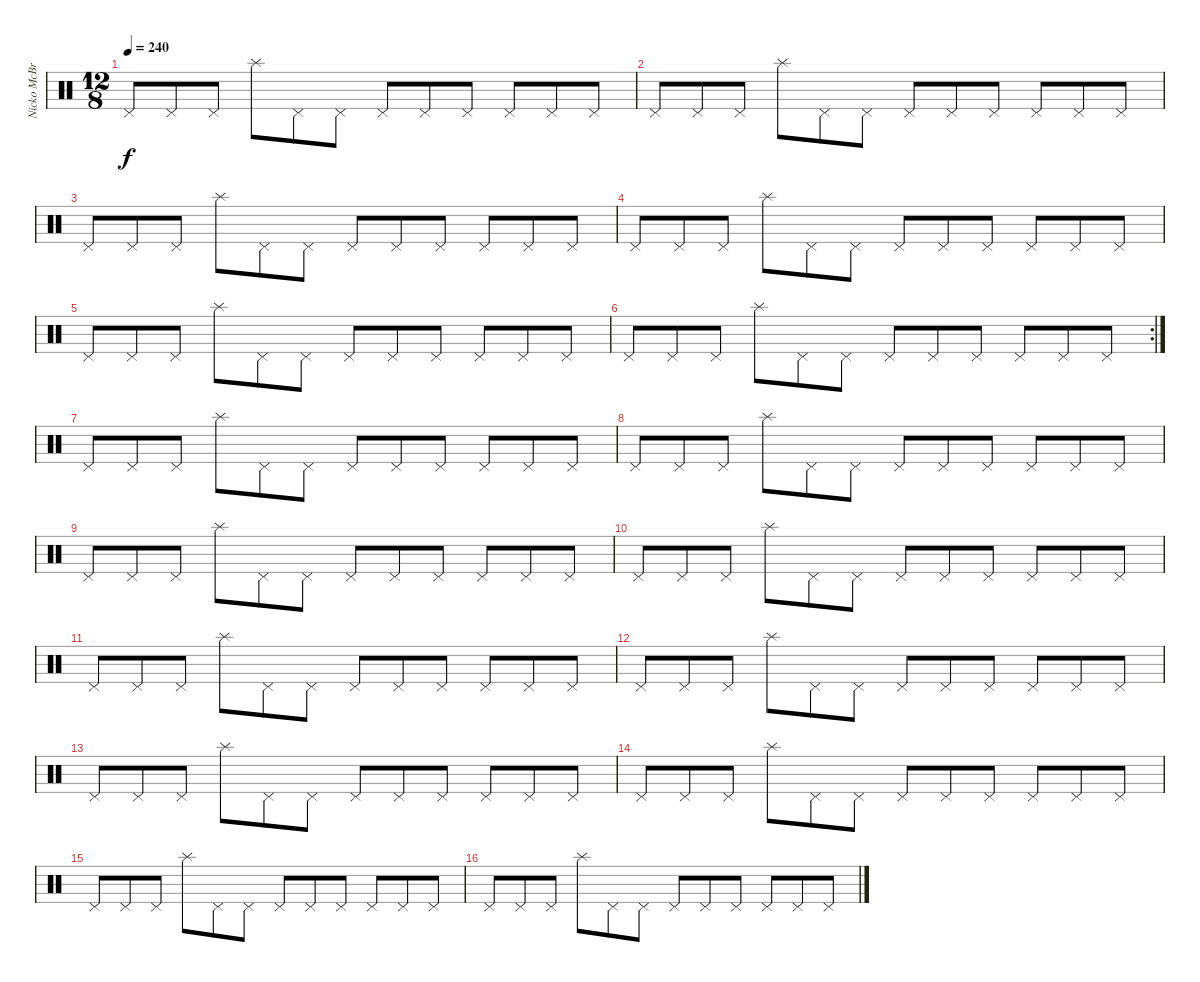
\track ("Nicko McBrian (Drums)" "Nicko McBr") {instrument percussion}
\staff {score}
\articulation defaults
\ts (12 8)
\tempo 240
\clef neutral
\ks c "Pedal Hi-Hat (hit)".8{dy f} "Pedal Hi-Hat (hit)".8 "Pedal Hi-Hat (hit)".8 "Splash (hit)".8 "Pedal Hi-Hat (hit)".8 "Pedal Hi-Hat (hit)".8 "Pedal Hi-Hat (hit)".8 "Pedal Hi-Hat (hit)".8 "Pedal Hi-Hat (hit)".8 "Pedal Hi-Hat (hit)".8 "Pedal Hi-Hat (hit)".8 "Pedal Hi-Hat (hit)".8
|
"Pedal Hi-Hat (hit)".8 "Pedal Hi-Hat (hit)".8 "Pedal Hi-Hat (hit)".8 "Splash (hit)".8 "Pedal Hi-Hat (hit)".8 "Pedal Hi-Hat (hit)".8 "Pedal Hi-Hat (hit)".8 "Pedal Hi-Hat (hit)".8 "Pedal Hi-Hat (hit)".8 "Pedal Hi-Hat (hit)".8 "Pedal Hi-Hat (hit)".8 "Pedal Hi-Hat (hit)".8 |
"Pedal Hi-Hat (hit)".8 "Pedal Hi-Hat (hit)".8 "Pedal Hi-Hat (hit)".8 "Splash (hit)".8 "Pedal Hi-Hat (hit)".8 "Pedal Hi-Hat (hit)".8 "Pedal Hi-Hat (hit)".8 "Pedal Hi-Hat (hit)".8 "Pedal Hi-Hat (hit)".8 "Pedal Hi-Hat (hit)".8 "Pedal Hi-Hat (hit)".8 "Pedal Hi-Hat (hit)".8 |
"Pedal Hi-Hat (hit)".8 "Pedal Hi-Hat (hit)".8 "Pedal Hi-Hat (hit)".8 "Splash (hit)".8 "Pedal Hi-Hat (hit)".8 "Pedal Hi-Hat (hit)".8 "Pedal Hi-Hat (hit)".8 "Pedal Hi-Hat (hit)".8 "Pedal Hi-Hat (hit)".8 "Pedal Hi-Hat (hit)".8 "Pedal Hi-Hat (hit)".8 "Pedal Hi-Hat (hit)".8 |
"Pedal Hi-Hat (hit)".8 "Pedal Hi-Hat (hit)".8 "Pedal Hi-Hat (hit)".8 "Splash (hit)".8 "Pedal Hi-Hat (hit)".8 "Pedal Hi-Hat (hit)".8 "Pedal Hi-Hat (hit)".8 "Pedal Hi-Hat (hit)".8 "Pedal Hi-Hat (hit)".8 "Pedal Hi-Hat (hit)".8 "Pedal Hi-Hat (hit)".8 "Pedal Hi-Hat (hit)".8 |
\rc 2 "Pedal Hi-Hat (hit)".8 "Pedal Hi-Hat (hit)".8 "Pedal Hi-Hat (hit)".8 "Splash (hit)".8 "Pedal Hi-Hat (hit)".8 "Pedal Hi-Hat (hit)".8 "Pedal Hi-Hat (hit)".8 "Pedal Hi-Hat (hit)".8 "Pedal Hi-Hat (hit)".8 "Pedal Hi-Hat (hit)".8 "Pedal Hi-Hat (hit)".8 "Pedal Hi-Hat (hit)".8
|
"Pedal Hi-Hat (hit)".8 "Pedal Hi-Hat (hit)".8 "Pedal Hi-Hat (hit)".8 "Splash (hit)".8 "Pedal Hi-Hat (hit)".8 "Pedal Hi-Hat (hit)".8 "Pedal Hi-Hat (hit)".8 "Pedal Hi-Hat (hit)".8 "Pedal Hi-Hat (hit)".8 "Pedal Hi-Hat (hit)".8 "Pedal Hi-Hat (hit)".8 "Pedal Hi-Hat (hit)".8 |
"Pedal Hi-Hat (hit)".8 "Pedal Hi-Hat (hit)".8 "Pedal Hi-Hat (hit)".8 "Splash (hit)".8 "Pedal Hi-Hat (hit)".8 "Pedal Hi-Hat (hit)".8 "Pedal Hi-Hat (hit)".8 "Pedal Hi-Hat (hit)".8 "Pedal Hi-Hat (hit)".8 "Pedal Hi-Hat (hit)".8 "Pedal Hi-Hat (hit)".8 "Pedal Hi-Hat (hit)".8 |
"Pedal Hi-Hat (hit)".8 "Pedal Hi-Hat (hit)".8 "Pedal Hi-Hat (hit)".8 "Splash (hit)".8 "Pedal Hi-Hat (hit)".8 "Pedal Hi-Hat (hit)".8 "Pedal Hi-Hat (hit)".8 "Pedal Hi-Hat (hit)".8 "Pedal Hi-Hat (hit)".8 "Pedal Hi-Hat (hit)".8 "Pedal Hi-Hat (hit)".8 "Pedal Hi-Hat (hit)".8 |
"Pedal Hi-Hat (hit)".8 "Pedal Hi-Hat (hit)".8 "Pedal Hi-Hat (hit)".8 "Splash (hit)".8 "Pedal Hi-Hat (hit)".8 "Pedal Hi-Hat (hit)".8 "Pedal Hi-Hat (hit)".8 "Pedal Hi-Hat (hit)".8 "Pedal Hi-Hat (hit)".8 "Pedal Hi-Hat (hit)".8 "Pedal Hi-Hat (hit)".8 "Pedal Hi-Hat (hit)".8 |
"Pedal Hi-Hat (hit)".8 "Pedal Hi-Hat (hit)".8 "Pedal Hi-Hat (hit)".8 "Splash (hit)".8 "Pedal Hi-Hat (hit)".8 "Pedal Hi-Hat (hit)".8 "Pedal Hi-Hat (hit)".8 "Pedal Hi-Hat (hit)".8 "Pedal Hi-Hat (hit)".8 "Pedal Hi-Hat (hit)".8 "Pedal Hi-Hat (hit)".8 "Pedal Hi-Hat (hit)".8 |
"Pedal Hi-Hat (hit)".8 "Pedal Hi-Hat (hit)".8 "Pedal Hi-Hat (hit)".8 "Splash (hit)".8 "Pedal Hi-Hat (hit)".8 "Pedal Hi-Hat (hit)".8 "Pedal Hi-Hat (hit)".8 "Pedal Hi-Hat (hit)".8 "Pedal Hi-Hat (hit)".8 "Pedal Hi-Hat (hit)".8 "Pedal Hi-Hat (hit)".8 "Pedal Hi-Hat (hit)".8 |
"Pedal Hi-Hat (hit)".8 "Pedal Hi-Hat (hit)".8 "Pedal Hi-Hat (hit)".8 "Splash (hit)".8 "Pedal Hi-Hat (hit)".8 "Pedal Hi-Hat (hit)".8 "Pedal Hi-Hat (hit)".8 "Pedal Hi-Hat (hit)".8 "Pedal Hi-Hat (hit)".8 "Pedal Hi-Hat (hit)".8 "Pedal Hi-Hat (hit)".8 "Pedal Hi-Hat (hit)".8 |
"Pedal Hi-Hat (hit)".8 "Pedal Hi-Hat (hit)".8 "Pedal Hi-Hat (hit)".8 "Splash (hit)".8 "Pedal Hi-Hat (hit)".8 "Pedal Hi-Hat (hit)".8 "Pedal Hi-Hat (hit)".8 "Pedal Hi-Hat (hit)".8 "Pedal Hi-Hat (hit)".8 "Pedal Hi-Hat (hit)".8 "Pedal Hi-Hat (hit)".8 "Pedal Hi-Hat (hit)".8 |
"Pedal Hi-Hat (hit)".8 "Pedal Hi-Hat (hit)".8 "Pedal Hi-Hat (hit)".8 "Splash (hit)".8 "Pedal Hi-Hat (hit)".8 "Pedal Hi-Hat (hit)".8 "Pedal Hi-Hat (hit)".8 "Pedal Hi-Hat (hit)".8 "Pedal Hi-Hat (hit)".8 "Pedal Hi-Hat (hit)".8 "Pedal Hi-Hat (hit)".8 "Pedal Hi-Hat (hit)".8 |
"Pedal Hi-Hat (hit)".8 "Pedal Hi-Hat (hit)".8 "Pedal Hi-Hat (hit)".8 "Splash (hit)".8 "Pedal Hi-Hat (hit)".8 "Pedal Hi-Hat (hit)".8 "Pedal Hi-Hat (hit)".8 "Pedal Hi-Hat (hit)".8 "Pedal Hi-Hat (hit)".8 "Pedal Hi-Hat (hit)".8 "Pedal Hi-Hat (hit)".8 "Pedal Hi-Hat (hit)".8
